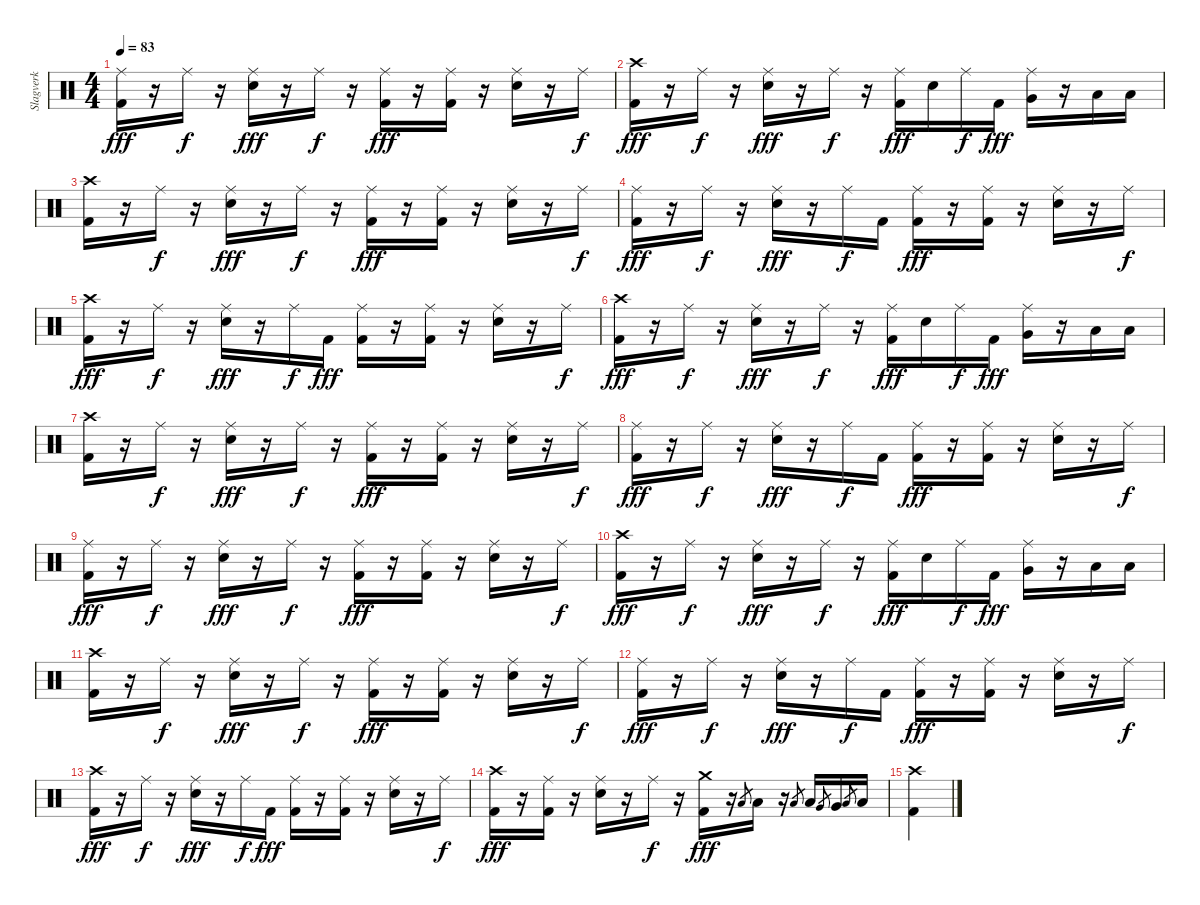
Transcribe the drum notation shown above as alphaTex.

\track ("Slagverk" "Slagverk") {instrument percussion}
\staff {score}
\articulation defaults
\ts (4 4)
\tempo 83
\clef neutral
\ks c
("Ride (middle)" "Kick (hit) 2").16{dy fff} r.16 "Ride (middle)".16{dy f} r.16 ("Ride (middle)" "Electric Snare (hit)").16{dy fff} r.16 "Ride (middle)".16{dy f} r.16 ("Ride (middle)" "Kick (hit) 2").16{dy fff} r.16 ("Ride (middle)" "Kick (hit) 2").16 r.16 ("Ride (middle)" "Electric Snare (hit)").16 r.16 "Ride (middle)".16{dy f} |
("Crash high (hit)" "Kick (hit) 2").16{dy fff} r.16 "Ride (middle)".16{dy f} r.16 ("Ride (middle)" "Electric Snare (hit)").16{dy fff} r.16 "Ride (middle)".16{dy f} r.16 ("Ride (middle)" "Kick (hit) 2").16{dy fff} "Electric Snare (hit)".16 "Ride (middle)".16{dy f} "Kick (hit) 2".16{dy fff} ("Ride (middle)" "Very Low Tom (hit)").16 r.16 "Low Floor Tom (hit)".16 "Low Floor Tom (hit)".16 |
("Crash high (hit)" "Kick (hit) 2").16 r.16 "Ride (middle)".16{dy f} r.16 ("Ride (middle)" "Electric Snare (hit)").16{dy fff} r.16 "Ride (middle)".16{dy f} r.16 ("Ride (middle)" "Kick (hit) 2").16{dy fff} r.16 ("Ride (middle)" "Kick (hit) 2").16 r.16 ("Ride (middle)" "Electric Snare (hit)").16 r.16 "Ride (middle)".16{dy f} |
("Ride (middle)" "Kick (hit) 2").16{dy fff} r.16 "Ride (middle)".16{dy f} r.16 ("Ride (middle)" "Electric Snare (hit)").16{dy fff} r.16 "Ride (middle)".16{dy f} "Kick (hit) 2".16 ("Ride (middle)" "Kick (hit) 2").16{dy fff} r.16 ("Ride (middle)" "Kick (hit) 2").16 r.16 ("Ride (middle)" "Electric Snare (hit)").16 r.16 "Ride (middle)".16{dy f} |
("Crash high (hit)" "Kick (hit) 2").16{dy fff} r.16 "Ride (middle)".16{dy f} r.16 ("Ride (middle)" "Electric Snare (hit)").16{dy fff} r.16 "Ride (middle)".16{dy f} "Kick (hit) 2".16{dy fff} ("Ride (middle)" "Kick (hit) 2").16 r.16 ("Ride (middle)" "Kick (hit) 2").16 r.16 ("Ride (middle)" "Electric Snare (hit)").16 r.16 "Ride (middle)".16{dy f} |
("Crash high (hit)" "Kick (hit) 2").16{dy fff} r.16 "Ride (middle)".16{dy f} r.16 ("Ride (middle)" "Electric Snare (hit)").16{dy fff} r.16 "Ride (middle)".16{dy f} r.16 ("Ride (middle)" "Kick (hit) 2").16{dy fff} "Electric Snare (hit)".16 "Ride (middle)".16{dy f} "Kick (hit) 2".16{dy fff} ("Ride (middle)" "Very Low Tom (hit)").16 r.16 "Low Floor Tom (hit)".16 "Low Floor Tom (hit)".16 |
("Crash high (hit)" "Kick (hit) 2").16 r.16 "Ride (middle)".16{dy f} r.16 ("Ride (middle)" "Electric Snare (hit)").16{dy fff} r.16 "Ride (middle)".16{dy f} r.16 ("Ride (middle)" "Kick (hit) 2").16{dy fff} r.16 ("Ride (middle)" "Kick (hit) 2").16 r.16 ("Ride (middle)" "Electric Snare (hit)").16 r.16 "Ride (middle)".16{dy f} |
("Ride (middle)" "Kick (hit) 2").16{dy fff} r.16 "Ride (middle)".16{dy f} r.16 ("Ride (middle)" "Electric Snare (hit)").16{dy fff} r.16 "Ride (middle)".16{dy f} "Kick (hit) 2".16 ("Ride (middle)" "Kick (hit) 2").16{dy fff} r.16 ("Ride (middle)" "Kick (hit) 2").16 r.16 ("Ride (middle)" "Electric Snare (hit)").16 r.16 "Ride (middle)".16{dy f} |
("Ride (middle)" "Kick (hit) 2").16{dy fff} r.16 "Ride (middle)".16{dy f} r.16 ("Ride (middle)" "Electric Snare (hit)").16{dy fff} r.16 "Ride (middle)".16{dy f} r.16 ("Ride (middle)" "Kick (hit) 2").16{dy fff} r.16 ("Ride (middle)" "Kick (hit) 2").16 r.16 ("Ride (middle)" "Electric Snare (hit)").16 r.16 "Ride (middle)".16{dy f} |
("Crash high (hit)" "Kick (hit) 2").16{dy fff} r.16 "Ride (middle)".16{dy f} r.16 ("Ride (middle)" "Electric Snare (hit)").16{dy fff} r.16 "Ride (middle)".16{dy f} r.16 ("Ride (middle)" "Kick (hit) 2").16{dy fff} "Electric Snare (hit)".16 "Ride (middle)".16{dy f} "Kick (hit) 2".16{dy fff} ("Ride (middle)" "Very Low Tom (hit)").16 r.16 "Low Floor Tom (hit)".16 "Low Floor Tom (hit)".16 |
("Crash high (hit)" "Kick (hit) 2").16 r.16 "Ride (middle)".16{dy f} r.16 ("Ride (middle)" "Electric Snare (hit)").16{dy fff} r.16 "Ride (middle)".16{dy f} r.16 ("Ride (middle)" "Kick (hit) 2").16{dy fff} r.16 ("Ride (middle)" "Kick (hit) 2").16 r.16 ("Ride (middle)" "Electric Snare (hit)").16 r.16 "Ride (middle)".16{dy f} |
("Ride (middle)" "Kick (hit) 2").16{dy fff} r.16 "Ride (middle)".16{dy f} r.16 ("Ride (middle)" "Electric Snare (hit)").16{dy fff} r.16 "Ride (middle)".16{dy f} "Kick (hit) 2".16 ("Ride (middle)" "Kick (hit) 2").16{dy fff} r.16 ("Ride (middle)" "Kick (hit) 2").16 r.16 ("Ride (middle)" "Electric Snare (hit)").16 r.16 "Ride (middle)".16{dy f} |
("Crash high (hit)" "Kick (hit) 2").16{dy fff} r.16 "Ride (middle)".16{dy f} r.16 ("Ride (middle)" "Electric Snare (hit)").16{dy fff} r.16 "Ride (middle)".16{dy f} "Kick (hit) 2".16{dy fff} ("Ride (middle)" "Kick (hit) 2").16 r.16 ("Ride (middle)" "Kick (hit) 2").16 r.16 ("Ride (middle)" "Electric Snare (hit)").16 r.16 "Ride (middle)".16{dy f} |
("Crash high (hit)" "Kick (hit) 2").16{dy fff} r.16 ("Ride (middle)" "Kick (hit) 2").16 r.16 ("Ride (middle)" "Electric Snare (hit)").16 r.16 "Ride (middle)".16{dy f} r.16 ("Crash medium (hit)" "Kick (hit) 2").16{dy fff} r.16 "Low Tom (hit)".8{gr} "Low Tom (hit)".16 r.16 "Low Tom (hit)".8{gr} "Low Tom (hit)".16 "Very Low Tom (hit)".8{gr} "Very Low Tom (hit)".16 "Low Floor Tom (hit)".8{gr} "Low Floor Tom (hit)".16 |
("Crash high (hit)" "Kick (hit) 2").4
